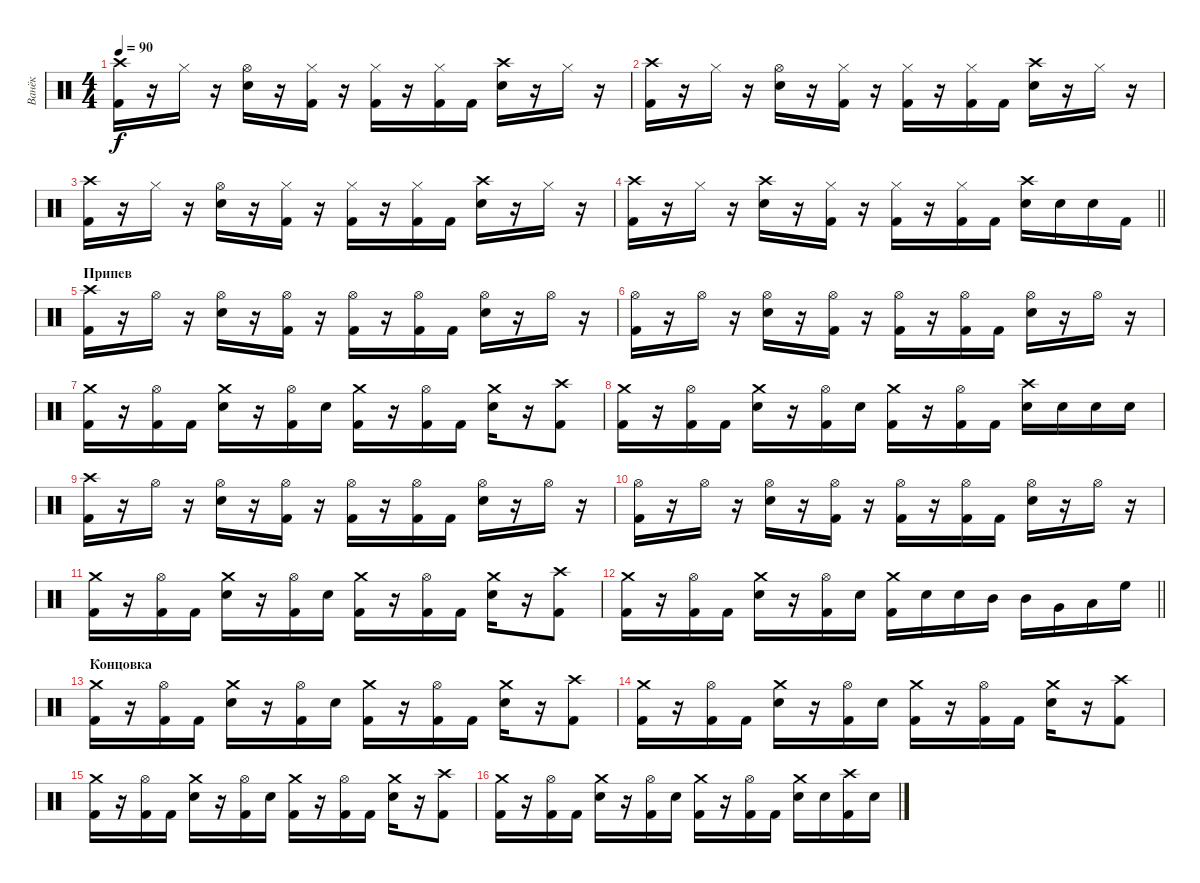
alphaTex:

\track ("Ванёк" "Ванёк") {instrument percussion}
\staff {score}
\articulation defaults
\ts (4 4)
\tempo 90
\clef neutral
\ks c
("Crash high (hit)" "Kick (hit) 2").16{dy f} r.16 "Hi-Hat (closed)".16 r.16 ("Hi-Hat (open)" "Electric Snare (hit)").16 r.16 ("Hi-Hat (closed)" "Kick (hit) 2").16 r.16 ("Hi-Hat (closed)" "Kick (hit) 2").16 r.16 ("Hi-Hat (closed)" "Kick (hit) 2").16 "Kick (hit) 2".16 ("Crash high (hit)" "Electric Snare (hit)").16 r.16 "Hi-Hat (closed)".16 r.16 |
("Crash high (hit)" "Kick (hit) 2").16 r.16 "Hi-Hat (closed)".16 r.16 ("Hi-Hat (open)" "Electric Snare (hit)").16 r.16 ("Hi-Hat (closed)" "Kick (hit) 2").16 r.16 ("Hi-Hat (closed)" "Kick (hit) 2").16 r.16 ("Hi-Hat (closed)" "Kick (hit) 2").16 "Kick (hit) 2".16 ("Crash high (hit)" "Electric Snare (hit)").16 r.16 "Hi-Hat (closed)".16 r.16 |
("Crash high (hit)" "Kick (hit) 2").16 r.16 "Hi-Hat (closed)".16 r.16 ("Hi-Hat (open)" "Electric Snare (hit)").16 r.16 ("Hi-Hat (closed)" "Kick (hit) 2").16 r.16 ("Hi-Hat (closed)" "Kick (hit) 2").16 r.16 ("Hi-Hat (closed)" "Kick (hit) 2").16 "Kick (hit) 2".16 ("Crash high (hit)" "Electric Snare (hit)").16 r.16 "Hi-Hat (closed)".16 r.16 |
\barLineRight lightlight
("Crash high (hit)" "Kick (hit) 2").16 r.16 "Hi-Hat (closed)".16 r.16 ("Crash high (hit)" "Electric Snare (hit)").16 r.16 ("Hi-Hat (closed)" "Kick (hit) 2").16 r.16 ("Hi-Hat (closed)" "Kick (hit) 2").16 r.16 ("Hi-Hat (closed)" "Kick (hit) 2").16 "Kick (hit) 2".16 ("Crash high (hit)" "Electric Snare (hit)").16 "Electric Snare (hit)".16 "Electric Snare (hit)".16 "Kick (hit) 2".16 |
\section ("" "Припев")
("Crash high (hit)" "Kick (hit) 2").16 r.16 "Hi-Hat (open)".16 r.16 ("Hi-Hat (open)" "Electric Snare (hit)").16 r.16 ("Hi-Hat (open)" "Kick (hit) 2").16 r.16 ("Hi-Hat (open)" "Kick (hit) 2").16 r.16 ("Hi-Hat (open)" "Kick (hit) 2").16 "Kick (hit) 2".16 ("Hi-Hat (open)" "Electric Snare (hit)").16 r.16 "Hi-Hat (open)".16 r.16 |
("Hi-Hat (open)" "Kick (hit) 2").16 r.16 "Hi-Hat (open)".16 r.16 ("Hi-Hat (open)" "Electric Snare (hit)").16 r.16 ("Hi-Hat (open)" "Kick (hit) 2").16 r.16 ("Hi-Hat (open)" "Kick (hit) 2").16 r.16 ("Hi-Hat (open)" "Kick (hit) 2").16 "Kick (hit) 2".16 ("Hi-Hat (open)" "Electric Snare (hit)").16 r.16 "Hi-Hat (open)".16 r.16 |
("Crash medium (hit)" "Kick (hit) 2").16 r.16 ("Hi-Hat (open)" "Kick (hit) 2").16 "Kick (hit) 2".16 ("Crash medium (hit)" "Electric Snare (hit)").16 r.16 ("Hi-Hat (open)" "Kick (hit) 2").16 "Electric Snare (hit)".16 ("Crash medium (hit)" "Kick (hit) 2").16 r.16 ("Hi-Hat (open)" "Kick (hit) 2").16 "Kick (hit) 2".16 ("Crash medium (hit)" "Electric Snare (hit)").16 r.16 ("Crash high (hit)" "Kick (hit) 2").8 |
("Crash medium (hit)" "Kick (hit) 2").16 r.16 ("Hi-Hat (open)" "Kick (hit) 2").16 "Kick (hit) 2".16 ("Crash medium (hit)" "Electric Snare (hit)").16 r.16 ("Hi-Hat (open)" "Kick (hit) 2").16 "Electric Snare (hit)".16 ("Crash medium (hit)" "Kick (hit) 2").16 r.16 ("Hi-Hat (open)" "Kick (hit) 2").16 "Kick (hit) 2".16 ("Crash high (hit)" "Electric Snare (hit)").16 "Electric Snare (hit)".16 "Electric Snare (hit)".16 "Electric Snare (hit)".16 |
("Crash high (hit)" "Kick (hit) 2").16 r.16 "Hi-Hat (open)".16 r.16 ("Hi-Hat (open)" "Electric Snare (hit)").16 r.16 ("Hi-Hat (open)" "Kick (hit) 2").16 r.16 ("Hi-Hat (open)" "Kick (hit) 2").16 r.16 ("Hi-Hat (open)" "Kick (hit) 2").16 "Kick (hit) 2".16 ("Hi-Hat (open)" "Electric Snare (hit)").16 r.16 "Hi-Hat (open)".16 r.16 |
("Hi-Hat (open)" "Kick (hit) 2").16 r.16 "Hi-Hat (open)".16 r.16 ("Hi-Hat (open)" "Electric Snare (hit)").16 r.16 ("Hi-Hat (open)" "Kick (hit) 2").16 r.16 ("Hi-Hat (open)" "Kick (hit) 2").16 r.16 ("Hi-Hat (open)" "Kick (hit) 2").16 "Kick (hit) 2".16 ("Hi-Hat (open)" "Electric Snare (hit)").16 r.16 "Hi-Hat (open)".16 r.16 |
("Crash medium (hit)" "Kick (hit) 2").16 r.16 ("Hi-Hat (open)" "Kick (hit) 2").16 "Kick (hit) 2".16 ("Crash medium (hit)" "Electric Snare (hit)").16 r.16 ("Hi-Hat (open)" "Kick (hit) 2").16 "Electric Snare (hit)".16 ("Crash medium (hit)" "Kick (hit) 2").16 r.16 ("Hi-Hat (open)" "Kick (hit) 2").16 "Kick (hit) 2".16 ("Crash medium (hit)" "Electric Snare (hit)").16 r.16 ("Crash high (hit)" "Kick (hit) 2").8 |
\barLineRight lightlight
("Crash medium (hit)" "Kick (hit) 2").16 r.16 ("Hi-Hat (open)" "Kick (hit) 2").16 "Kick (hit) 2".16 ("Crash medium (hit)" "Electric Snare (hit)").16 r.16 ("Hi-Hat (open)" "Kick (hit) 2").16 "Electric Snare (hit)".16 ("Crash medium (hit)" "Kick (hit) 2").16 "Electric Snare (hit)".16 "Electric Snare (hit)".16 "Mid Tom (hit)".16 "Mid Tom (hit)".16 "Very Low Tom (hit)".16 "Low Tom (hit)".16 "High Floor Tom (hit)".16 |
\section ("" "Концовка")
("Crash medium (hit)" "Kick (hit) 2").16 r.16 ("Hi-Hat (open)" "Kick (hit) 2").16 "Kick (hit) 2".16 ("Crash medium (hit)" "Electric Snare (hit)").16 r.16 ("Hi-Hat (open)" "Kick (hit) 2").16 "Electric Snare (hit)".16 ("Crash medium (hit)" "Kick (hit) 2").16 r.16 ("Hi-Hat (open)" "Kick (hit) 2").16 "Kick (hit) 2".16 ("Crash medium (hit)" "Electric Snare (hit)").16 r.16 ("Crash high (hit)" "Kick (hit) 2").8 |
("Crash medium (hit)" "Kick (hit) 2").16 r.16 ("Hi-Hat (open)" "Kick (hit) 2").16 "Kick (hit) 2".16 ("Crash medium (hit)" "Electric Snare (hit)").16 r.16 ("Hi-Hat (open)" "Kick (hit) 2").16 "Electric Snare (hit)".16 ("Crash medium (hit)" "Kick (hit) 2").16 r.16 ("Hi-Hat (open)" "Kick (hit) 2").16 "Kick (hit) 2".16 ("Crash medium (hit)" "Electric Snare (hit)").16 r.16 ("Crash high (hit)" "Kick (hit) 2").8 |
("Crash medium (hit)" "Kick (hit) 2").16 r.16 ("Hi-Hat (open)" "Kick (hit) 2").16 "Kick (hit) 2".16 ("Crash medium (hit)" "Electric Snare (hit)").16 r.16 ("Hi-Hat (open)" "Kick (hit) 2").16 "Electric Snare (hit)".16 ("Crash medium (hit)" "Kick (hit) 2").16 r.16 ("Hi-Hat (open)" "Kick (hit) 2").16 "Kick (hit) 2".16 ("Crash medium (hit)" "Electric Snare (hit)").16 r.16 ("Crash high (hit)" "Kick (hit) 2").8 |
("Crash medium (hit)" "Kick (hit) 2").16 r.16 ("Hi-Hat (open)" "Kick (hit) 2").16 "Kick (hit) 2".16 ("Crash medium (hit)" "Electric Snare (hit)").16 r.16 ("Hi-Hat (open)" "Kick (hit) 2").16 "Electric Snare (hit)".16 ("Crash medium (hit)" "Kick (hit) 2").16 r.16 ("Hi-Hat (open)" "Kick (hit) 2").16 "Kick (hit) 2".16 ("Crash medium (hit)" "Electric Snare (hit)").16 "Electric Snare (hit)".16 ("Crash high (hit)" "Kick (hit) 2").16 "Electric Snare (hit)".16
